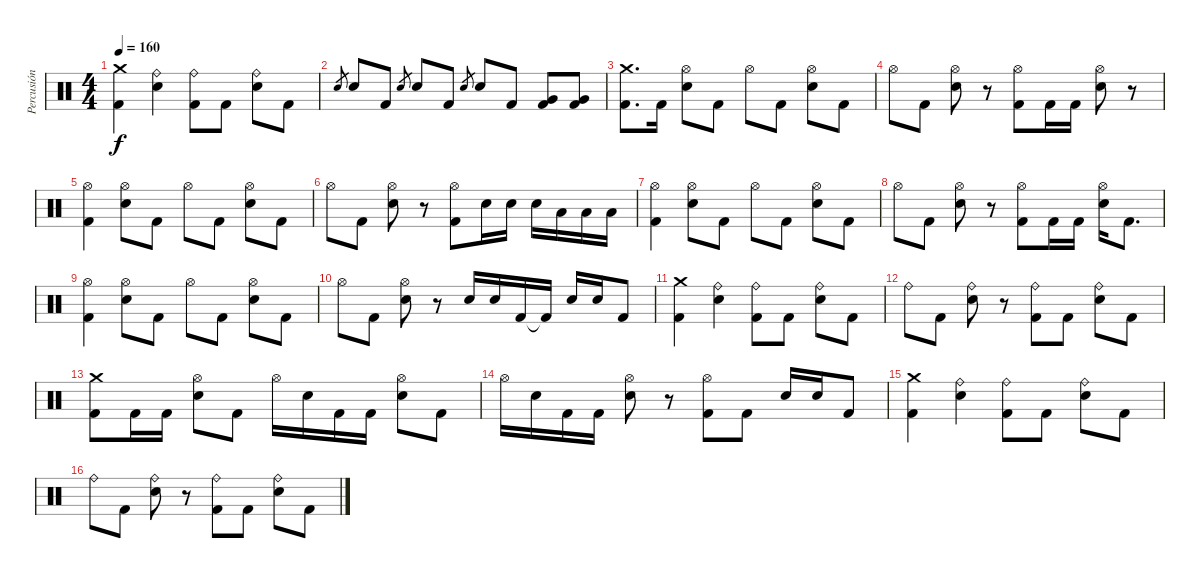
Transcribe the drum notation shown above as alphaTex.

\track ("Percusión" "Percusión") {instrument percussion}
\staff {score}
\articulation defaults
\ts (4 4)
\tempo 160
\clef neutral
\ks c
("Crash medium (hit)" "Kick (hit) 2").4{dy f} ("Ride (bell)" "Snare (hit) 2").4 ("Ride (bell)" "Kick (hit) 2").8 "Kick (hit) 2".8 ("Ride (bell)" "Snare (hit) 2").8 "Kick (hit) 2".8 |
"Snare (hit) 2".8{gr} "Snare (hit) 2".8 "Kick (hit) 2".8 "Snare (hit) 2".8{gr} "Snare (hit) 2".8 "Kick (hit) 2".8 "Snare (hit) 2".8{gr} "Snare (hit) 2".8 "Kick (hit) 2".8 ("Very Low Tom (hit)" "Kick (hit) 2").8 ("Very Low Tom (hit)" "Kick (hit) 2").8 |
("Crash medium (hit)" "Kick (hit) 2").8{d} "Kick (hit) 2".16 ("Hi-Hat (open)" "Snare (hit) 2").8 "Kick (hit) 2".8 "Hi-Hat (open)".8 "Kick (hit) 2".8 ("Hi-Hat (open)" "Snare (hit) 2").8 "Kick (hit) 2".8 |
"Hi-Hat (open)".8 "Kick (hit) 2".8 ("Hi-Hat (open)" "Snare (hit) 2").8 r.8 ("Hi-Hat (open)" "Kick (hit) 2").8 "Kick (hit) 2".16 "Kick (hit) 2".16 ("Hi-Hat (open)" "Snare (hit) 2").8 r.8 |
("Hi-Hat (open)" "Kick (hit) 2").4 ("Hi-Hat (open)" "Snare (hit) 2").8 "Kick (hit) 2".8 "Hi-Hat (open)".8 "Kick (hit) 2".8 ("Hi-Hat (open)" "Snare (hit) 2").8 "Kick (hit) 2".8 |
"Hi-Hat (open)".8 "Kick (hit) 2".8 ("Hi-Hat (open)" "Snare (hit) 2").8 r.8 ("Hi-Hat (open)" "Kick (hit) 2").8 "Snare (hit) 2".16 "Snare (hit) 2".16 "Snare (hit) 2".16 "Low Tom (hit)".16 "Low Tom (hit)".16 "Low Tom (hit)".16 |
("Hi-Hat (open)" "Kick (hit) 2").4 ("Hi-Hat (open)" "Snare (hit) 2").8 "Kick (hit) 2".8 "Hi-Hat (open)".8 "Kick (hit) 2".8 ("Hi-Hat (open)" "Snare (hit) 2").8 "Kick (hit) 2".8 |
"Hi-Hat (open)".8 "Kick (hit) 2".8 ("Hi-Hat (open)" "Snare (hit) 2").8 r.8 ("Hi-Hat (open)" "Kick (hit) 2").8 "Kick (hit) 2".16 "Kick (hit) 2".16 ("Hi-Hat (open)" "Snare (hit) 2").16 "Kick (hit) 2".8{d} |
("Hi-Hat (open)" "Kick (hit) 2").4 ("Hi-Hat (open)" "Snare (hit) 2").8 "Kick (hit) 2".8 "Hi-Hat (open)".8 "Kick (hit) 2".8 ("Hi-Hat (open)" "Snare (hit) 2").8 "Kick (hit) 2".8 |
"Hi-Hat (open)".8 "Kick (hit) 2".8 ("Hi-Hat (open)" "Snare (hit) 2").8 r.8 "Snare (hit) 2".16 "Snare (hit) 2".16 "Kick (hit) 2".16 "Kick (hit) 2"{t}.16 "Snare (hit) 2".16 "Snare (hit) 2".16 "Kick (hit) 2".8 |
("Crash medium (hit)" "Kick (hit) 2").4 ("Ride (bell)" "Snare (hit) 2").4 ("Ride (bell)" "Kick (hit) 2").8 "Kick (hit) 2".8 ("Ride (bell)" "Snare (hit) 2").8 "Kick (hit) 2".8 |
"Ride (bell)".8 "Kick (hit) 2".8 ("Ride (bell)" "Snare (hit) 2").8 r.8 ("Ride (bell)" "Kick (hit) 2").8 "Kick (hit) 2".8 ("Ride (bell)" "Snare (hit) 2").8 "Kick (hit) 2".8 |
("Crash medium (hit)" "Kick (hit) 2").8 "Kick (hit) 2".16 "Kick (hit) 2".16 ("Hi-Hat (open)" "Snare (hit) 2").8 "Kick (hit) 2".8 "Hi-Hat (open)".16 "Snare (hit) 2".16 "Kick (hit) 2".16 "Kick (hit) 2".16 ("Hi-Hat (open)" "Snare (hit) 2").8 "Kick (hit) 2".8 |
"Hi-Hat (open)".16 "Snare (hit) 2".16 "Kick (hit) 2".16 "Kick (hit) 2".16 ("Hi-Hat (open)" "Snare (hit) 2").8 r.8 ("Hi-Hat (open)" "Kick (hit) 2").8 "Kick (hit) 2".8 "Snare (hit) 2".16 "Snare (hit) 2".16 "Kick (hit) 2".8 |
("Crash medium (hit)" "Kick (hit) 2").4 ("Ride (bell)" "Snare (hit) 2").4 ("Ride (bell)" "Kick (hit) 2").8 "Kick (hit) 2".8 ("Ride (bell)" "Snare (hit) 2").8 "Kick (hit) 2".8 |
"Ride (bell)".8 "Kick (hit) 2".8 ("Ride (bell)" "Snare (hit) 2").8 r.8 ("Ride (bell)" "Kick (hit) 2").8 "Kick (hit) 2".8 ("Ride (bell)" "Snare (hit) 2").8 "Kick (hit) 2".8
